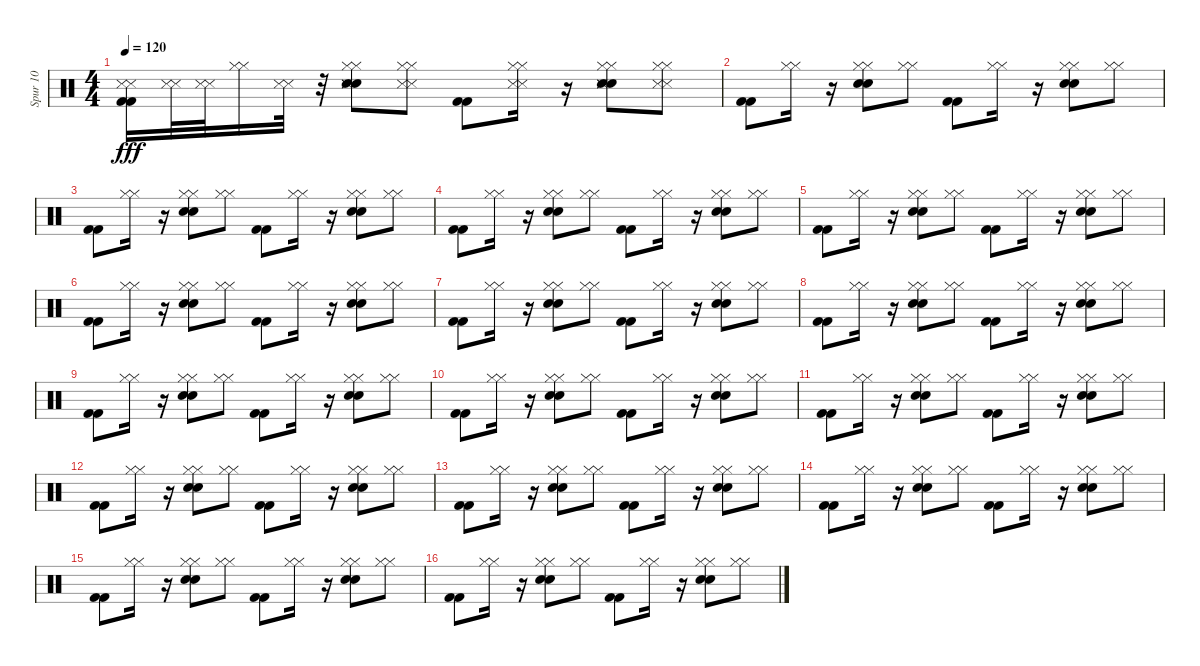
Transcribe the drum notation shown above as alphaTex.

\track ("Spur 10" "Spur 10") {instrument percussion}
\staff {score}
\articulation defaults
\ts (4 4)
\tempo 120
\clef neutral
\ks c
("Snare (side stick) 3" "Snare (side stick) 3" "Kick (hit) 2" "Kick (hit) 2").16{dy fff} ("Snare (side stick) 3" "Snare (side stick) 3").32 ("Snare (side stick) 3" "Snare (side stick) 3").32 ("Hi-Hat (closed)" "Hi-Hat (closed)").16 ("Snare (side stick) 3" "Snare (side stick) 3").32 r.32 ("Snare (hit) 2" "Hi-Hat (closed)" "Snare (hit) 2" "Hi-Hat (closed)" "Snare (side stick) 3" "Snare (side stick) 3").8 ("Hi-Hat (closed)" "Hi-Hat (closed)" "Snare (side stick) 3" "Snare (side stick) 3").8 ("Kick (hit) 2" "Kick (hit) 2").8 ("Hi-Hat (closed)" "Hi-Hat (closed)" "Snare (side stick) 3" "Snare (side stick) 3").16 r.16 ("Hi-Hat (closed)" "Snare (hit) 2" "Hi-Hat (closed)" "Snare (hit) 2" "Snare (side stick) 3" "Snare (side stick) 3").8 ("Hi-Hat (closed)" "Hi-Hat (closed)" "Snare (side stick) 3" "Snare (side stick) 3").8 |
("Kick (hit) 2" "Kick (hit) 2").8 ("Hi-Hat (closed)" "Hi-Hat (closed)").16 r.16 ("Snare (hit) 2" "Hi-Hat (closed)" "Snare (hit) 2" "Hi-Hat (closed)").8 ("Hi-Hat (closed)" "Hi-Hat (closed)").8 ("Kick (hit) 2" "Kick (hit) 2").8 ("Hi-Hat (closed)" "Hi-Hat (closed)").16 r.16 ("Hi-Hat (closed)" "Snare (hit) 2" "Hi-Hat (closed)" "Snare (hit) 2").8 ("Hi-Hat (closed)" "Hi-Hat (closed)").8 |
("Kick (hit) 2" "Kick (hit) 2").8 ("Hi-Hat (closed)" "Hi-Hat (closed)").16 r.16 ("Snare (hit) 2" "Hi-Hat (closed)" "Snare (hit) 2" "Hi-Hat (closed)").8 ("Hi-Hat (closed)" "Hi-Hat (closed)").8 ("Kick (hit) 2" "Kick (hit) 2").8 ("Hi-Hat (closed)" "Hi-Hat (closed)").16 r.16 ("Snare (hit) 2" "Hi-Hat (closed)" "Snare (hit) 2" "Hi-Hat (closed)").8 ("Hi-Hat (closed)" "Hi-Hat (closed)").8 |
("Kick (hit) 2" "Kick (hit) 2").8 ("Hi-Hat (closed)" "Hi-Hat (closed)").16 r.16 ("Snare (hit) 2" "Snare (hit) 2" "Hi-Hat (closed)" "Hi-Hat (closed)").8 ("Hi-Hat (closed)" "Hi-Hat (closed)").8 ("Kick (hit) 2" "Kick (hit) 2").8 ("Hi-Hat (closed)" "Hi-Hat (closed)").16 r.16 ("Hi-Hat (closed)" "Snare (hit) 2" "Hi-Hat (closed)" "Snare (hit) 2").8 ("Hi-Hat (closed)" "Hi-Hat (closed)").8 |
("Kick (hit) 2" "Kick (hit) 2").8 ("Hi-Hat (closed)" "Hi-Hat (closed)").16 r.16 ("Hi-Hat (closed)" "Snare (hit) 2" "Hi-Hat (closed)" "Snare (hit) 2").8 ("Hi-Hat (closed)" "Hi-Hat (closed)").8 ("Kick (hit) 2" "Kick (hit) 2").8 ("Hi-Hat (closed)" "Hi-Hat (closed)").16 r.16 ("Snare (hit) 2" "Hi-Hat (closed)" "Snare (hit) 2" "Hi-Hat (closed)").8 ("Hi-Hat (closed)" "Hi-Hat (closed)").8 |
("Kick (hit) 2" "Kick (hit) 2").8 ("Hi-Hat (closed)" "Hi-Hat (closed)").16 r.16 ("Snare (hit) 2" "Hi-Hat (closed)" "Snare (hit) 2" "Hi-Hat (closed)").8 ("Hi-Hat (closed)" "Hi-Hat (closed)").8 ("Kick (hit) 2" "Kick (hit) 2").8 ("Hi-Hat (closed)" "Hi-Hat (closed)").16 r.16 ("Hi-Hat (closed)" "Hi-Hat (closed)" "Snare (hit) 2" "Snare (hit) 2").8 ("Hi-Hat (closed)" "Hi-Hat (closed)").8 |
("Kick (hit) 2" "Kick (hit) 2").8 ("Hi-Hat (closed)" "Hi-Hat (closed)").16 r.16 ("Hi-Hat (closed)" "Snare (hit) 2" "Hi-Hat (closed)" "Snare (hit) 2").8 ("Hi-Hat (closed)" "Hi-Hat (closed)").8 ("Kick (hit) 2" "Kick (hit) 2").8 ("Hi-Hat (closed)" "Hi-Hat (closed)").16 r.16 ("Snare (hit) 2" "Hi-Hat (closed)" "Snare (hit) 2" "Hi-Hat (closed)").8 ("Hi-Hat (closed)" "Hi-Hat (closed)").8 |
("Kick (hit) 2" "Kick (hit) 2").8 ("Hi-Hat (closed)" "Hi-Hat (closed)").16 r.16 ("Hi-Hat (closed)" "Snare (hit) 2" "Hi-Hat (closed)" "Snare (hit) 2").8 ("Hi-Hat (closed)" "Hi-Hat (closed)").8 ("Kick (hit) 2" "Kick (hit) 2").8 ("Hi-Hat (closed)" "Hi-Hat (closed)").16 r.16 ("Snare (hit) 2" "Snare (hit) 2" "Hi-Hat (closed)" "Hi-Hat (closed)").8 ("Hi-Hat (closed)" "Hi-Hat (closed)").8 |
("Kick (hit) 2" "Kick (hit) 2").8 ("Hi-Hat (closed)" "Hi-Hat (closed)").16 r.16 ("Hi-Hat (closed)" "Snare (hit) 2" "Hi-Hat (closed)" "Snare (hit) 2").8 ("Hi-Hat (closed)" "Hi-Hat (closed)").8 ("Kick (hit) 2" "Kick (hit) 2").8 ("Hi-Hat (closed)" "Hi-Hat (closed)").16 r.16 ("Snare (hit) 2" "Hi-Hat (closed)" "Snare (hit) 2" "Hi-Hat (closed)").8 ("Hi-Hat (closed)" "Hi-Hat (closed)").8 |
("Kick (hit) 2" "Kick (hit) 2").8 ("Hi-Hat (closed)" "Hi-Hat (closed)").16 r.16 ("Hi-Hat (closed)" "Hi-Hat (closed)" "Snare (hit) 2" "Snare (hit) 2").8 ("Hi-Hat (closed)" "Hi-Hat (closed)").8 ("Kick (hit) 2" "Kick (hit) 2").8 ("Hi-Hat (closed)" "Hi-Hat (closed)").16 r.16 ("Snare (hit) 2" "Hi-Hat (closed)" "Snare (hit) 2" "Hi-Hat (closed)").8 ("Hi-Hat (closed)" "Hi-Hat (closed)").8 |
("Kick (hit) 2" "Kick (hit) 2").8 ("Hi-Hat (closed)" "Hi-Hat (closed)").16 r.16 ("Hi-Hat (closed)" "Hi-Hat (closed)" "Snare (hit) 2" "Snare (hit) 2").8 ("Hi-Hat (closed)" "Hi-Hat (closed)").8 ("Kick (hit) 2" "Kick (hit) 2").8 ("Hi-Hat (closed)" "Hi-Hat (closed)").16 r.16 ("Snare (hit) 2" "Hi-Hat (closed)" "Snare (hit) 2" "Hi-Hat (closed)").8 ("Hi-Hat (closed)" "Hi-Hat (closed)").8 |
("Kick (hit) 2" "Kick (hit) 2").8 ("Hi-Hat (closed)" "Hi-Hat (closed)").16 r.16 ("Hi-Hat (closed)" "Snare (hit) 2" "Hi-Hat (closed)" "Snare (hit) 2").8 ("Hi-Hat (closed)" "Hi-Hat (closed)").8 ("Kick (hit) 2" "Kick (hit) 2").8 ("Hi-Hat (closed)" "Hi-Hat (closed)").16 r.16 ("Snare (hit) 2" "Snare (hit) 2" "Hi-Hat (closed)" "Hi-Hat (closed)").8 ("Hi-Hat (closed)" "Hi-Hat (closed)").8 |
("Kick (hit) 2" "Kick (hit) 2").8 ("Hi-Hat (closed)" "Hi-Hat (closed)").16 r.16 ("Snare (hit) 2" "Hi-Hat (closed)" "Snare (hit) 2" "Hi-Hat (closed)").8 ("Hi-Hat (closed)" "Hi-Hat (closed)").8 ("Kick (hit) 2" "Kick (hit) 2").8 ("Hi-Hat (closed)" "Hi-Hat (closed)").16 r.16 ("Snare (hit) 2" "Snare (hit) 2" "Hi-Hat (closed)" "Hi-Hat (closed)").8 ("Hi-Hat (closed)" "Hi-Hat (closed)").8 |
("Kick (hit) 2" "Kick (hit) 2").8 ("Hi-Hat (closed)" "Hi-Hat (closed)").16 r.16 ("Hi-Hat (closed)" "Snare (hit) 2" "Hi-Hat (closed)" "Snare (hit) 2").8 ("Hi-Hat (closed)" "Hi-Hat (closed)").8 ("Kick (hit) 2" "Kick (hit) 2").8 ("Hi-Hat (closed)" "Hi-Hat (closed)").16 r.16 ("Snare (hit) 2" "Hi-Hat (closed)" "Snare (hit) 2" "Hi-Hat (closed)").8 ("Hi-Hat (closed)" "Hi-Hat (closed)").8 |
("Kick (hit) 2" "Kick (hit) 2").8 ("Hi-Hat (closed)" "Hi-Hat (closed)").16 r.16 ("Snare (hit) 2" "Snare (hit) 2" "Hi-Hat (closed)" "Hi-Hat (closed)").8 ("Hi-Hat (closed)" "Hi-Hat (closed)").8 ("Kick (hit) 2" "Kick (hit) 2").8 ("Hi-Hat (closed)" "Hi-Hat (closed)").16 r.16 ("Snare (hit) 2" "Hi-Hat (closed)" "Snare (hit) 2" "Hi-Hat (closed)").8 ("Hi-Hat (closed)" "Hi-Hat (closed)").8 |
("Kick (hit) 2" "Kick (hit) 2").8 ("Hi-Hat (closed)" "Hi-Hat (closed)").16 r.16 ("Snare (hit) 2" "Snare (hit) 2" "Hi-Hat (closed)" "Hi-Hat (closed)").8 ("Hi-Hat (closed)" "Hi-Hat (closed)").8 ("Kick (hit) 2" "Kick (hit) 2").8 ("Hi-Hat (closed)" "Hi-Hat (closed)").16 r.16 ("Hi-Hat (closed)" "Snare (hit) 2" "Hi-Hat (closed)" "Snare (hit) 2").8 ("Hi-Hat (closed)" "Hi-Hat (closed)").8
